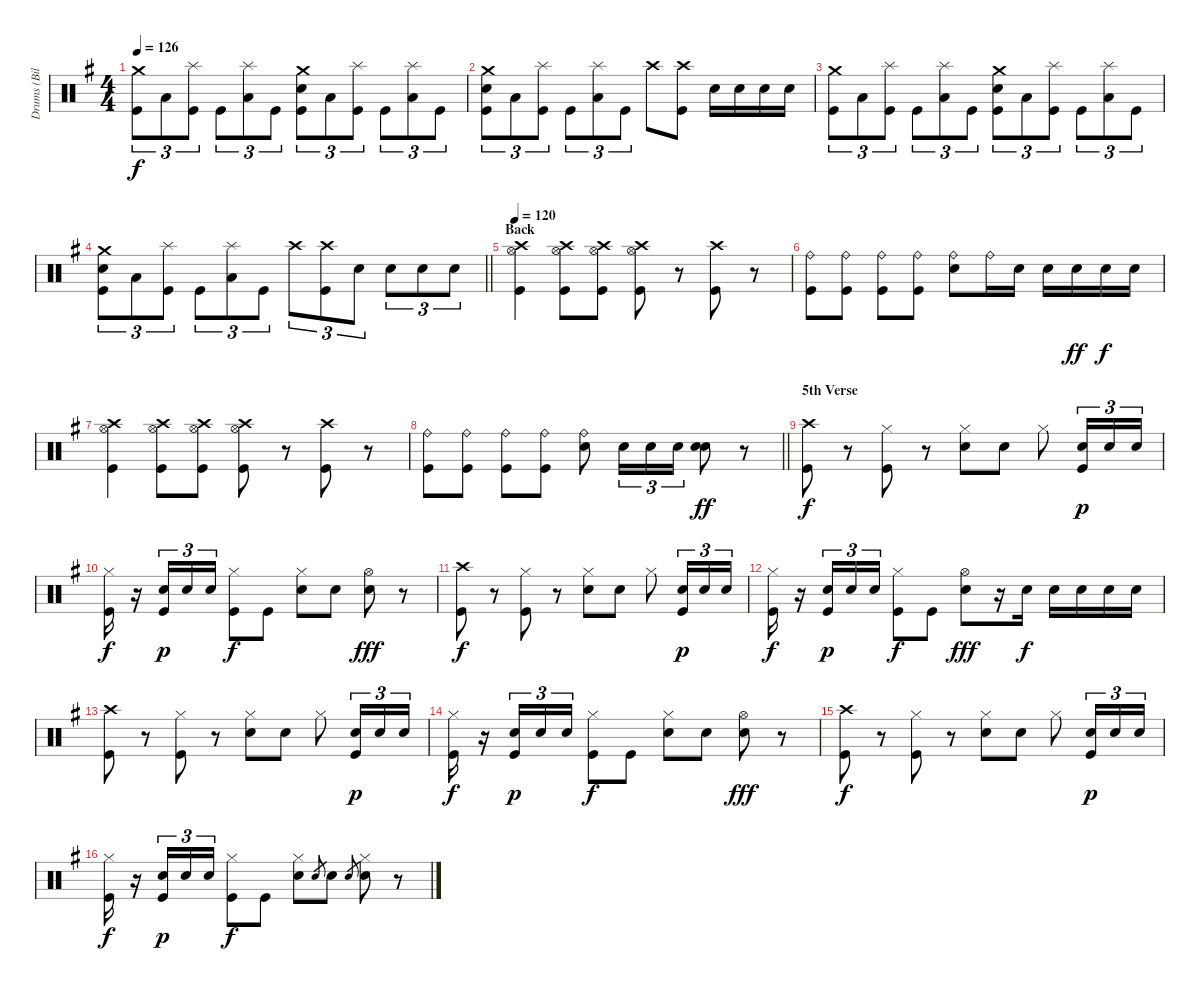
\track ("Drums (Bill Ward)" "Drums (Bil") {instrument percussion}
\staff {score}
\articulation defaults
\ts (4 4)
\tempo 126
\clef neutral
\ks g
("Crash medium (hit)" "Kick (hit)").8{tu (3 2) dy f} "Low Tom (hit)".8{tu (3 2)} ("Splash (hit)" "Kick (hit)").8{tu (3 2)} "Kick (hit)".8{tu (3 2)} ("Splash (hit)" "Low Tom (hit)").8{tu (3 2)} "Kick (hit)".8{tu (3 2)} ("Crash medium (hit)" "Electric Snare (hit)" "Kick (hit)").8{tu (3 2)} "Low Tom (hit)".8{tu (3 2)} ("Splash (hit)" "Kick (hit)").8{tu (3 2)} "Kick (hit)".8{tu (3 2)} ("Splash (hit)" "Low Tom (hit)").8{tu (3 2)} "Kick (hit)".8{tu (3 2)} |
("Crash medium (hit)" "Electric Snare (hit)" "Kick (hit)").8{tu (3 2)} "Low Tom (hit)".8{tu (3 2)} ("Splash (hit)" "Kick (hit)").8{tu (3 2)} "Kick (hit)".8{tu (3 2)} ("Splash (hit)" "Low Tom (hit)").8{tu (3 2)} "Kick (hit)".8{tu (3 2)} "Crash high (hit)".8 ("Crash high (hit)" "Kick (hit)").8 "Electric Snare (hit)".16 "Electric Snare (hit)".16 "Electric Snare (hit)".16 "Electric Snare (hit)".16 |
("Crash medium (hit)" "Kick (hit)").8{tu (3 2)} "Low Tom (hit)".8{tu (3 2)} ("Splash (hit)" "Kick (hit)").8{tu (3 2)} "Kick (hit)".8{tu (3 2)} ("Splash (hit)" "Low Tom (hit)").8{tu (3 2)} "Kick (hit)".8{tu (3 2)} ("Crash medium (hit)" "Electric Snare (hit)" "Kick (hit)").8{tu (3 2)} "Low Tom (hit)".8{tu (3 2)} ("Splash (hit)" "Kick (hit)").8{tu (3 2)} "Kick (hit)".8{tu (3 2)} ("Splash (hit)" "Low Tom (hit)").8{tu (3 2)} "Kick (hit)".8{tu (3 2)} |
\barLineRight lightlight
("Crash medium (hit)" "Electric Snare (hit)" "Kick (hit)").8{tu (3 2)} "Low Tom (hit)".8{tu (3 2)} ("Splash (hit)" "Kick (hit)").8{tu (3 2)} "Kick (hit)".8{tu (3 2)} ("Splash (hit)" "Low Tom (hit)").8{tu (3 2)} "Kick (hit)".8{tu (3 2)} "Crash high (hit)".8{tu (3 2)} ("Crash high (hit)" "Kick (hit)").8{tu (3 2)} "Electric Snare (hit)".8{tu (3 2)} "Electric Snare (hit)".8{tu (3 2)} "Electric Snare (hit)".8{tu (3 2)} "Electric Snare (hit)".8{tu (3 2)} |
\section ("" "Back")
\tempo 120
("Crash high (hit)" "Hi-Hat (open)" "Kick (hit)").4 ("Crash high (hit)" "Hi-Hat (open)" "Kick (hit)").8 ("Crash high (hit)" "Hi-Hat (open)" "Kick (hit)").8 ("Crash high (hit)" "Hi-Hat (open)" "Kick (hit)").8 r.8 ("Crash high (hit)" "Kick (hit)").8 r.8 |
("Ride (bell)" "Kick (hit)").8 ("Ride (bell)" "Kick (hit)").8 ("Ride (bell)" "Kick (hit)").8 ("Ride (bell)" "Kick (hit)").8 ("Ride (bell)" "Electric Snare (hit)").8 "Ride (bell)".16 "Electric Snare (hit)".16 "Electric Snare (hit)".16 "Electric Snare (hit)".16{dy ff} "Electric Snare (hit)".16{dy f} "Electric Snare (hit)".16 |
("Crash high (hit)" "Hi-Hat (open)" "Kick (hit)").4 ("Crash high (hit)" "Hi-Hat (open)" "Kick (hit)").8 ("Crash high (hit)" "Hi-Hat (open)" "Kick (hit)").8 ("Crash high (hit)" "Hi-Hat (open)" "Kick (hit)").8 r.8 ("Crash high (hit)" "Kick (hit)").8 r.8 |
\barLineRight lightlight
("Ride (bell)" "Kick (hit)").8 ("Ride (bell)" "Kick (hit)").8 ("Ride (bell)" "Kick (hit)").8 ("Ride (bell)" "Kick (hit)").8 ("Ride (bell)" "Electric Snare (hit)").8 "Electric Snare (hit)".16{tu (3 2)} "Electric Snare (hit)".16{tu (3 2)} "Electric Snare (hit)".16{tu (3 2)} ("Electric Snare (hit)" "Electric Snare (hit)").8{dy ff} r.8 |
\section ("" "5th Verse")
("Crash high (hit)" "Kick (hit)").8{dy f} r.8 ("Hi-Hat (closed)" "Kick (hit)").8 r.8 ("Hi-Hat (closed)" "Electric Snare (hit)").8 "Electric Snare (hit)".8 "Hi-Hat (closed)".8 ("Electric Snare (hit)" "Kick (hit)").16{tu (3 2) dy p} "Electric Snare (hit)".16{tu (3 2)} "Electric Snare (hit)".16{tu (3 2)} |
("Hi-Hat (closed)" "Kick (hit)").16{dy f} r.16 ("Electric Snare (hit)" "Kick (hit)").16{tu (3 2) dy p} "Electric Snare (hit)".16{tu (3 2)} "Electric Snare (hit)".16{tu (3 2)} ("Hi-Hat (closed)" "Kick (hit)").8{dy f} "Kick (hit)".8 ("Hi-Hat (closed)" "Electric Snare (hit)").8 "Electric Snare (hit)".8 ("Hi-Hat (open)" "Electric Snare (hit)").8{dy fff} r.8 |
("Crash high (hit)" "Kick (hit)").8{dy f} r.8 ("Hi-Hat (closed)" "Kick (hit)").8 r.8 ("Hi-Hat (closed)" "Electric Snare (hit)").8 "Electric Snare (hit)".8 "Hi-Hat (closed)".8 ("Electric Snare (hit)" "Kick (hit)").16{tu (3 2) dy p} "Electric Snare (hit)".16{tu (3 2)} "Electric Snare (hit)".16{tu (3 2)} |
("Hi-Hat (closed)" "Kick (hit)").16{dy f} r.16 ("Electric Snare (hit)" "Kick (hit)").16{tu (3 2) dy p} "Electric Snare (hit)".16{tu (3 2)} "Electric Snare (hit)".16{tu (3 2)} ("Hi-Hat (closed)" "Kick (hit)").8{dy f} "Kick (hit)".8 ("Hi-Hat (open)" "Electric Snare (hit)").8{dy fff} r.16 "Electric Snare (hit)".16{dy f} "Electric Snare (hit)".16 "Electric Snare (hit)".16 "Electric Snare (hit)".16 "Electric Snare (hit)".16 |
("Crash high (hit)" "Kick (hit)").8 r.8 ("Hi-Hat (closed)" "Kick (hit)").8 r.8 ("Hi-Hat (closed)" "Electric Snare (hit)").8 "Electric Snare (hit)".8 "Hi-Hat (closed)".8 ("Electric Snare (hit)" "Kick (hit)").16{tu (3 2) dy p} "Electric Snare (hit)".16{tu (3 2)} "Electric Snare (hit)".16{tu (3 2)} |
("Hi-Hat (closed)" "Kick (hit)").16{dy f} r.16 ("Electric Snare (hit)" "Kick (hit)").16{tu (3 2) dy p} "Electric Snare (hit)".16{tu (3 2)} "Electric Snare (hit)".16{tu (3 2)} ("Hi-Hat (closed)" "Kick (hit)").8{dy f} "Kick (hit)".8 ("Hi-Hat (closed)" "Electric Snare (hit)").8 "Electric Snare (hit)".8 ("Hi-Hat (open)" "Electric Snare (hit)").8{dy fff} r.8 |
("Crash high (hit)" "Kick (hit)").8{dy f} r.8 ("Hi-Hat (closed)" "Kick (hit)").8 r.8 ("Hi-Hat (closed)" "Electric Snare (hit)").8 "Electric Snare (hit)".8 "Hi-Hat (closed)".8 ("Electric Snare (hit)" "Kick (hit)").16{tu (3 2) dy p} "Electric Snare (hit)".16{tu (3 2)} "Electric Snare (hit)".16{tu (3 2)} |
("Hi-Hat (closed)" "Kick (hit)").16{dy f} r.16 ("Electric Snare (hit)" "Kick (hit)").16{tu (3 2) dy p} "Electric Snare (hit)".16{tu (3 2)} "Electric Snare (hit)".16{tu (3 2)} ("Hi-Hat (closed)" "Kick (hit)").8{dy f} "Kick (hit)".8 ("Hi-Hat (closed)" "Electric Snare (hit)").8 "Electric Snare (hit)".8{gr} "Electric Snare (hit)".8 "Electric Snare (hit)".8{gr} ("Hi-Hat (closed)" "Electric Snare (hit)").8 r.8
